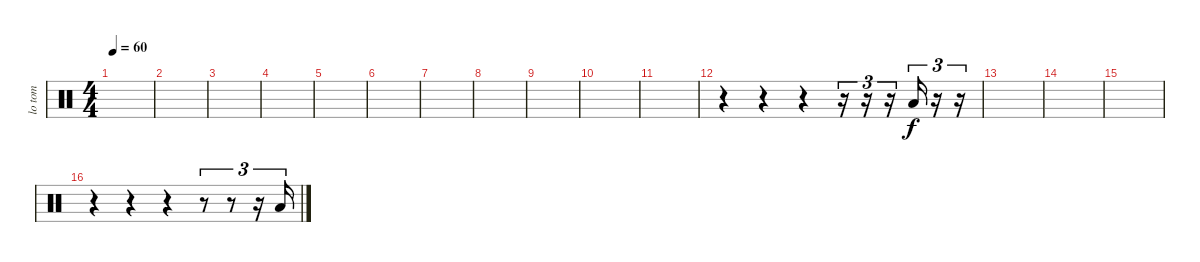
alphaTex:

\track ("lo tom" "lo tom") {instrument percussion}
\staff {score}
\articulation defaults
\ts (4 4)
\tempo 60
\clef neutral
\ks c
|
|
|
|
|
|
|
|
|
|
|
r.4 r.4 r.4 r.16{tu (3 2)} r.16{tu (3 2)} r.16{tu (3 2)} "Low Tom (hit)".16{tu (3 2)} r.16{tu (3 2)} r.16{tu (3 2)} |
|
|
|
r.4 r.4 r.4 r.8{tu (3 2)} r.8{tu (3 2)} r.16{tu (3 2)} "Low Tom (hit)".16{tu (3 2)}
